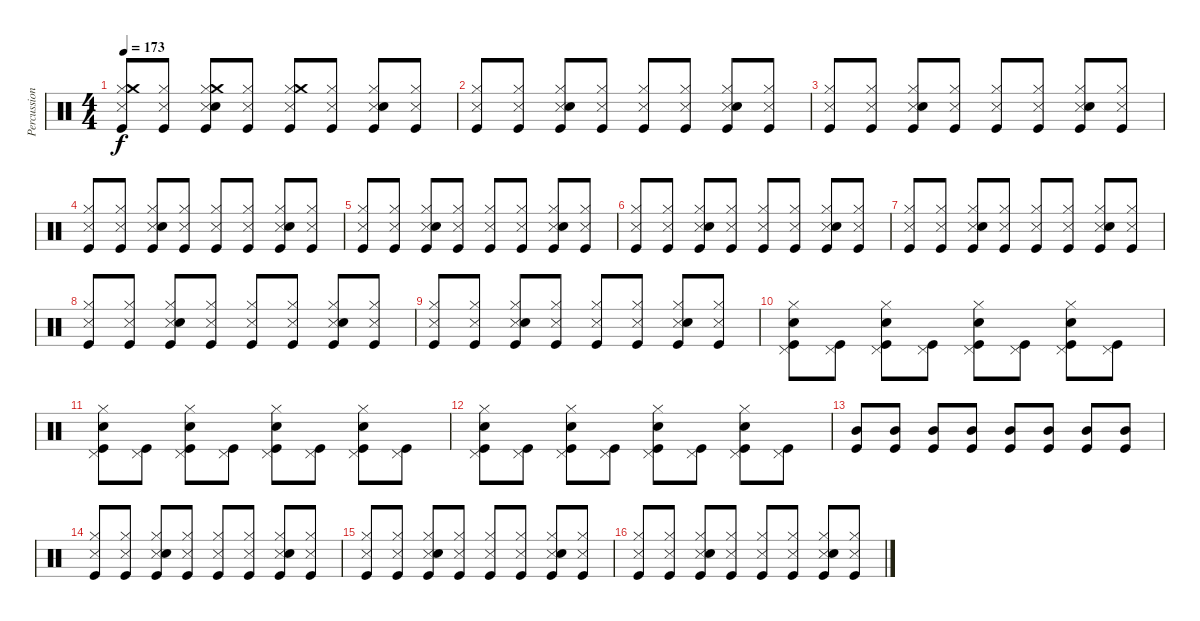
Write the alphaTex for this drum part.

\track ("Percussion" "Percussion") {instrument percussion}
\staff {score}
\articulation defaults
\ts (4 4)
\tempo 173
\clef neutral
\ks c
("Snare (side stick) 3" "Hi-Hat (closed)" "Crash medium (hit)" "Kick (hit)").8{dy f} ("Snare (side stick) 3" "Hi-Hat (closed)" "Kick (hit)").8 ("Snare (side stick) 3" "Hi-Hat (closed)" "Crash medium (hit)" "Snare (hit) 2" "Kick (hit)").8 ("Snare (side stick) 3" "Hi-Hat (closed)" "Kick (hit)").8 ("Snare (side stick) 3" "Hi-Hat (closed)" "Crash medium (hit)" "Kick (hit)").8 ("Snare (side stick) 3" "Hi-Hat (closed)" "Kick (hit)").8 ("Snare (side stick) 3" "Hi-Hat (closed)" "Snare (hit) 2" "Kick (hit)").8 ("Snare (side stick) 3" "Hi-Hat (closed)" "Kick (hit)").8 |
("Snare (side stick) 3" "Hi-Hat (closed)" "Kick (hit)").8 ("Snare (side stick) 3" "Hi-Hat (closed)" "Kick (hit)").8 ("Snare (side stick) 3" "Hi-Hat (closed)" "Snare (hit) 2" "Kick (hit)").8 ("Snare (side stick) 3" "Hi-Hat (closed)" "Kick (hit)").8 ("Snare (side stick) 3" "Hi-Hat (closed)" "Kick (hit)").8 ("Snare (side stick) 3" "Hi-Hat (closed)" "Kick (hit)").8 ("Snare (side stick) 3" "Hi-Hat (closed)" "Snare (hit) 2" "Kick (hit)").8 ("Snare (side stick) 3" "Hi-Hat (closed)" "Kick (hit)").8 |
("Snare (side stick) 3" "Hi-Hat (closed)" "Kick (hit)").8 ("Snare (side stick) 3" "Hi-Hat (closed)" "Kick (hit)").8 ("Snare (side stick) 3" "Hi-Hat (closed)" "Snare (hit) 2" "Kick (hit)").8 ("Snare (side stick) 3" "Hi-Hat (closed)" "Kick (hit)").8 ("Snare (side stick) 3" "Hi-Hat (closed)" "Kick (hit)").8 ("Snare (side stick) 3" "Hi-Hat (closed)" "Kick (hit)").8 ("Snare (side stick) 3" "Hi-Hat (closed)" "Snare (hit) 2" "Kick (hit)").8 ("Snare (side stick) 3" "Hi-Hat (closed)" "Kick (hit)").8 |
("Snare (side stick) 3" "Hi-Hat (closed)" "Kick (hit)").8 ("Snare (side stick) 3" "Hi-Hat (closed)" "Kick (hit)").8 ("Snare (side stick) 3" "Hi-Hat (closed)" "Snare (hit) 2" "Kick (hit)").8 ("Snare (side stick) 3" "Hi-Hat (closed)" "Kick (hit)").8 ("Snare (side stick) 3" "Hi-Hat (closed)" "Kick (hit)").8 ("Snare (side stick) 3" "Hi-Hat (closed)" "Kick (hit)").8 ("Snare (side stick) 3" "Hi-Hat (closed)" "Snare (hit) 2" "Kick (hit)").8 ("Snare (side stick) 3" "Hi-Hat (closed)" "Kick (hit)").8 |
("Snare (side stick) 3" "Hi-Hat (closed)" "Kick (hit)").8 ("Snare (side stick) 3" "Hi-Hat (closed)" "Kick (hit)").8 ("Snare (side stick) 3" "Hi-Hat (closed)" "Snare (hit) 2" "Kick (hit)").8 ("Snare (side stick) 3" "Hi-Hat (closed)" "Kick (hit)").8 ("Snare (side stick) 3" "Hi-Hat (closed)" "Kick (hit)").8 ("Snare (side stick) 3" "Hi-Hat (closed)" "Kick (hit)").8 ("Snare (side stick) 3" "Hi-Hat (closed)" "Snare (hit) 2" "Kick (hit)").8 ("Snare (side stick) 3" "Hi-Hat (closed)" "Kick (hit)").8 |
("Snare (side stick) 3" "Hi-Hat (closed)" "Kick (hit)").8 ("Snare (side stick) 3" "Hi-Hat (closed)" "Kick (hit)").8 ("Snare (side stick) 3" "Hi-Hat (closed)" "Snare (hit) 2" "Kick (hit)").8 ("Snare (side stick) 3" "Hi-Hat (closed)" "Kick (hit)").8 ("Snare (side stick) 3" "Hi-Hat (closed)" "Kick (hit)").8 ("Snare (side stick) 3" "Hi-Hat (closed)" "Kick (hit)").8 ("Snare (side stick) 3" "Hi-Hat (closed)" "Snare (hit) 2" "Kick (hit)").8 ("Snare (side stick) 3" "Hi-Hat (closed)" "Kick (hit)").8 |
("Snare (side stick) 3" "Hi-Hat (closed)" "Kick (hit)").8 ("Snare (side stick) 3" "Hi-Hat (closed)" "Kick (hit)").8 ("Snare (side stick) 3" "Hi-Hat (closed)" "Snare (hit) 2" "Kick (hit)").8 ("Snare (side stick) 3" "Hi-Hat (closed)" "Kick (hit)").8 ("Snare (side stick) 3" "Hi-Hat (closed)" "Kick (hit)").8 ("Snare (side stick) 3" "Hi-Hat (closed)" "Kick (hit)").8 ("Snare (side stick) 3" "Hi-Hat (closed)" "Snare (hit) 2" "Kick (hit)").8 ("Snare (side stick) 3" "Hi-Hat (closed)" "Kick (hit)").8 |
("Snare (side stick) 3" "Hi-Hat (closed)" "Kick (hit)").8 ("Snare (side stick) 3" "Hi-Hat (closed)" "Kick (hit)").8 ("Snare (side stick) 3" "Hi-Hat (closed)" "Snare (hit) 2" "Kick (hit)").8 ("Snare (side stick) 3" "Hi-Hat (closed)" "Kick (hit)").8 ("Snare (side stick) 3" "Hi-Hat (closed)" "Kick (hit)").8 ("Snare (side stick) 3" "Hi-Hat (closed)" "Kick (hit)").8 ("Snare (side stick) 3" "Hi-Hat (closed)" "Snare (hit) 2" "Kick (hit)").8 ("Snare (side stick) 3" "Hi-Hat (closed)" "Kick (hit)").8 |
("Snare (side stick) 3" "Hi-Hat (closed)" "Kick (hit)").8 ("Snare (side stick) 3" "Hi-Hat (closed)" "Kick (hit)").8 ("Snare (side stick) 3" "Hi-Hat (closed)" "Snare (hit) 2" "Kick (hit)").8 ("Snare (side stick) 3" "Hi-Hat (closed)" "Kick (hit)").8 ("Snare (side stick) 3" "Hi-Hat (closed)" "Kick (hit)").8 ("Snare (side stick) 3" "Hi-Hat (closed)" "Kick (hit)").8 ("Snare (side stick) 3" "Hi-Hat (closed)" "Snare (hit) 2" "Kick (hit)").8 ("Snare (side stick) 3" "Hi-Hat (closed)" "Kick (hit)").8 |
("Pedal Hi-Hat (hit)" "Hi-Hat (closed)" "Snare (hit) 2" "Kick (hit)").8 ("Pedal Hi-Hat (hit)" "Kick (hit)").8 ("Pedal Hi-Hat (hit)" "Hi-Hat (closed)" "Snare (hit) 2" "Kick (hit)").8 ("Pedal Hi-Hat (hit)" "Kick (hit)").8 ("Pedal Hi-Hat (hit)" "Hi-Hat (closed)" "Snare (hit) 2" "Kick (hit)").8 ("Pedal Hi-Hat (hit)" "Kick (hit)").8 ("Pedal Hi-Hat (hit)" "Hi-Hat (closed)" "Snare (hit) 2" "Kick (hit)").8 ("Pedal Hi-Hat (hit)" "Kick (hit)").8 |
("Pedal Hi-Hat (hit)" "Hi-Hat (closed)" "Snare (hit) 2" "Kick (hit)").8 ("Pedal Hi-Hat (hit)" "Kick (hit)").8 ("Pedal Hi-Hat (hit)" "Hi-Hat (closed)" "Snare (hit) 2" "Kick (hit)").8 ("Pedal Hi-Hat (hit)" "Kick (hit)").8 ("Pedal Hi-Hat (hit)" "Hi-Hat (closed)" "Snare (hit) 2" "Kick (hit)").8 ("Pedal Hi-Hat (hit)" "Kick (hit)").8 ("Pedal Hi-Hat (hit)" "Hi-Hat (closed)" "Snare (hit) 2" "Kick (hit)").8 ("Pedal Hi-Hat (hit)" "Kick (hit)").8 |
("Pedal Hi-Hat (hit)" "Hi-Hat (closed)" "Snare (hit) 2" "Kick (hit)").8 ("Pedal Hi-Hat (hit)" "Kick (hit)").8 ("Pedal Hi-Hat (hit)" "Hi-Hat (closed)" "Snare (hit) 2" "Kick (hit)").8 ("Pedal Hi-Hat (hit)" "Kick (hit)").8 ("Pedal Hi-Hat (hit)" "Hi-Hat (closed)" "Snare (hit) 2" "Kick (hit)").8 ("Pedal Hi-Hat (hit)" "Kick (hit)").8 ("Pedal Hi-Hat (hit)" "Hi-Hat (closed)" "Snare (hit) 2" "Kick (hit)").8 ("Pedal Hi-Hat (hit)" "Kick (hit)").8 |
("Mid Tom (hit)" "Kick (hit)").8 ("Mid Tom (hit)" "Kick (hit)").8 ("Mid Tom (hit)" "Kick (hit)").8 ("Mid Tom (hit)" "Kick (hit)").8 ("Mid Tom (hit)" "Kick (hit)").8 ("Mid Tom (hit)" "Kick (hit)").8 ("Mid Tom (hit)" "Kick (hit)").8 ("Mid Tom (hit)" "Kick (hit)").8 |
("Snare (side stick) 3" "Hi-Hat (closed)" "Kick (hit)").8 ("Snare (side stick) 3" "Hi-Hat (closed)" "Kick (hit)").8 ("Snare (side stick) 3" "Hi-Hat (closed)" "Snare (hit) 2" "Kick (hit)").8 ("Snare (side stick) 3" "Hi-Hat (closed)" "Kick (hit)").8 ("Snare (side stick) 3" "Hi-Hat (closed)" "Kick (hit)").8 ("Snare (side stick) 3" "Hi-Hat (closed)" "Kick (hit)").8 ("Snare (side stick) 3" "Hi-Hat (closed)" "Snare (hit) 2" "Kick (hit)").8 ("Snare (side stick) 3" "Hi-Hat (closed)" "Kick (hit)").8 |
("Snare (side stick) 3" "Hi-Hat (closed)" "Kick (hit)").8 ("Snare (side stick) 3" "Hi-Hat (closed)" "Kick (hit)").8 ("Snare (side stick) 3" "Hi-Hat (closed)" "Snare (hit) 2" "Kick (hit)").8 ("Snare (side stick) 3" "Hi-Hat (closed)" "Kick (hit)").8 ("Snare (side stick) 3" "Hi-Hat (closed)" "Kick (hit)").8 ("Snare (side stick) 3" "Hi-Hat (closed)" "Kick (hit)").8 ("Snare (side stick) 3" "Hi-Hat (closed)" "Snare (hit) 2" "Kick (hit)").8 ("Snare (side stick) 3" "Hi-Hat (closed)" "Kick (hit)").8 |
("Snare (side stick) 3" "Hi-Hat (closed)" "Kick (hit)").8 ("Snare (side stick) 3" "Hi-Hat (closed)" "Kick (hit)").8 ("Snare (side stick) 3" "Hi-Hat (closed)" "Snare (hit) 2" "Kick (hit)").8 ("Snare (side stick) 3" "Hi-Hat (closed)" "Kick (hit)").8 ("Snare (side stick) 3" "Hi-Hat (closed)" "Kick (hit)").8 ("Snare (side stick) 3" "Hi-Hat (closed)" "Kick (hit)").8 ("Snare (side stick) 3" "Hi-Hat (closed)" "Snare (hit) 2" "Kick (hit)").8 ("Snare (side stick) 3" "Hi-Hat (closed)" "Kick (hit)").8
